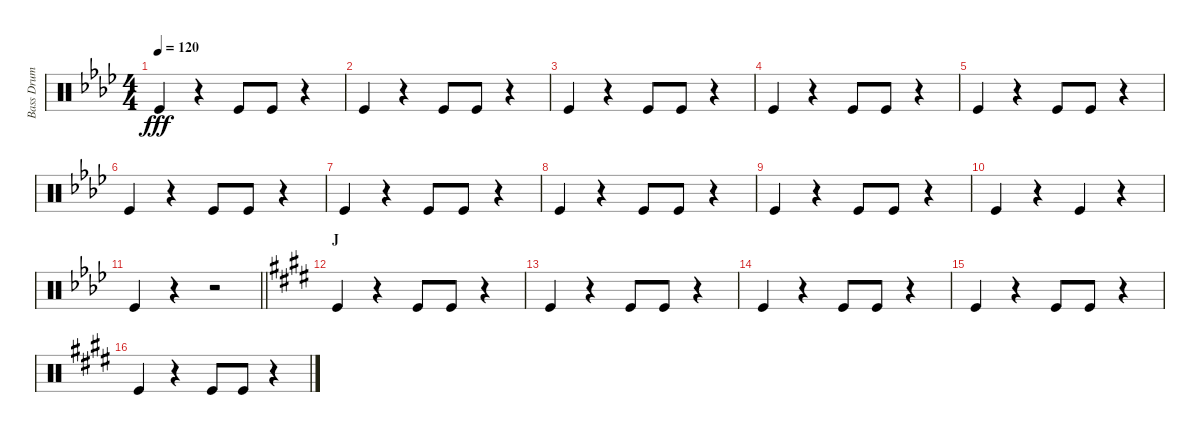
\track ("Bass Drum" "Bass Drum") {instrument percussion}
\staff {score}
\articulation defaults
\ts (4 4)
\tempo 120
\clef neutral
\ks ab "Kick (hit)".4{dy fff}
r.4 "Kick (hit)".8 "Kick (hit)".8 r.4 |
"Kick (hit)".4 r.4 "Kick (hit)".8 "Kick (hit)".8 r.4 |
"Kick (hit)".4 r.4 "Kick (hit)".8 "Kick (hit)".8 r.4 |
"Kick (hit)".4 r.4 "Kick (hit)".8 "Kick (hit)".8 r.4 |
"Kick (hit)".4 r.4 "Kick (hit)".8 "Kick (hit)".8 r.4 |
"Kick (hit)".4 r.4 "Kick (hit)".8 "Kick (hit)".8 r.4 |
"Kick (hit)".4 r.4 "Kick (hit)".8 "Kick (hit)".8 r.4 |
"Kick (hit)".4 r.4 "Kick (hit)".8 "Kick (hit)".8 r.4 |
"Kick (hit)".4 r.4 "Kick (hit)".8 "Kick (hit)".8 r.4 |
"Kick (hit)".4 r.4 "Kick (hit)".4 r.4 |
\barLineRight lightlight "Kick (hit)".4
r.4 r.2 |
\section ("" "J")
\ks e "Kick (hit)".4
r.4 "Kick (hit)".8 "Kick (hit)".8 r.4 |
"Kick (hit)".4 r.4 "Kick (hit)".8 "Kick (hit)".8 r.4 |
"Kick (hit)".4 r.4 "Kick (hit)".8 "Kick (hit)".8 r.4 |
"Kick (hit)".4 r.4 "Kick (hit)".8 "Kick (hit)".8 r.4 |
"Kick (hit)".4 r.4 "Kick (hit)".8 "Kick (hit)".8 r.4
